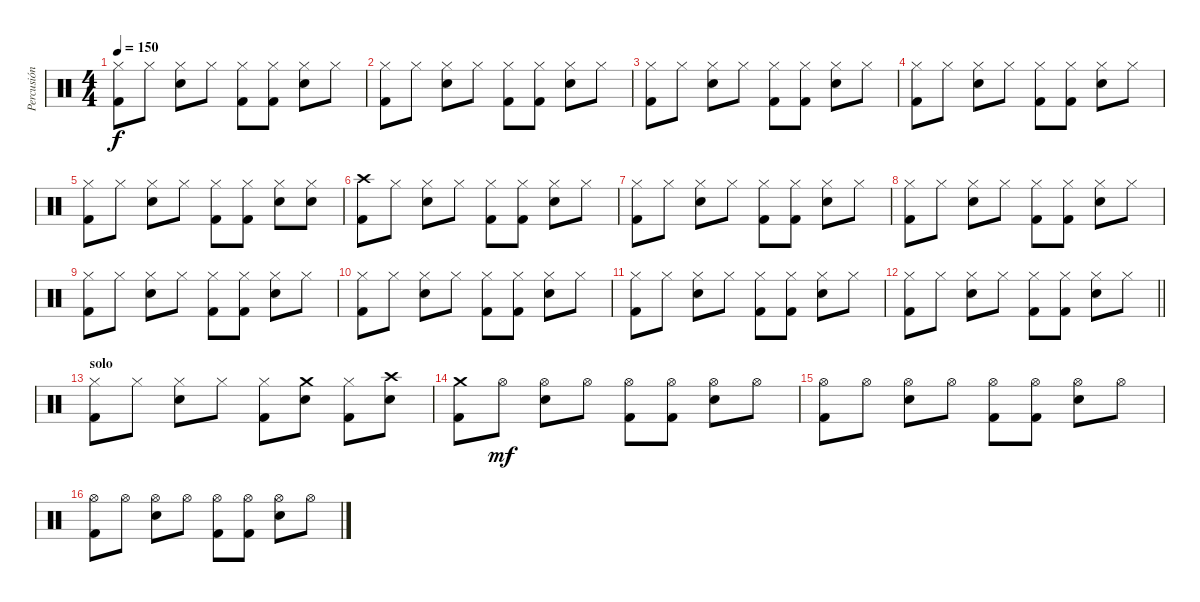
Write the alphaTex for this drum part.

\track ("Percusión" "Percusión") {instrument percussion}
\staff {score}
\articulation defaults
\ts (4 4)
\tempo 150
\clef neutral
\ks c
("Hi-Hat (closed)" "Kick (hit) 2").8{dy f} "Hi-Hat (closed)".8 ("Hi-Hat (closed)" "Electric Snare (hit)").8 "Hi-Hat (closed)".8 ("Hi-Hat (closed)" "Kick (hit) 2").8 ("Hi-Hat (closed)" "Kick (hit) 2").8 ("Hi-Hat (closed)" "Electric Snare (hit)").8 "Hi-Hat (closed)".8 |
("Hi-Hat (closed)" "Kick (hit) 2").8 "Hi-Hat (closed)".8 ("Hi-Hat (closed)" "Electric Snare (hit)").8 "Hi-Hat (closed)".8 ("Hi-Hat (closed)" "Kick (hit) 2").8 ("Hi-Hat (closed)" "Kick (hit) 2").8 ("Hi-Hat (closed)" "Electric Snare (hit)").8 "Hi-Hat (closed)".8 |
("Hi-Hat (closed)" "Kick (hit) 2").8 "Hi-Hat (closed)".8 ("Hi-Hat (closed)" "Electric Snare (hit)").8 "Hi-Hat (closed)".8 ("Hi-Hat (closed)" "Kick (hit) 2").8 ("Hi-Hat (closed)" "Kick (hit) 2").8 ("Hi-Hat (closed)" "Electric Snare (hit)").8 "Hi-Hat (closed)".8 |
("Hi-Hat (closed)" "Kick (hit) 2").8 "Hi-Hat (closed)".8 ("Hi-Hat (closed)" "Electric Snare (hit)").8 "Hi-Hat (closed)".8 ("Hi-Hat (closed)" "Kick (hit) 2").8 ("Hi-Hat (closed)" "Kick (hit) 2").8 ("Hi-Hat (closed)" "Electric Snare (hit)").8 "Hi-Hat (closed)".8 |
("Hi-Hat (closed)" "Kick (hit) 2").8 "Hi-Hat (closed)".8 ("Hi-Hat (closed)" "Electric Snare (hit)").8 "Hi-Hat (closed)".8 ("Hi-Hat (closed)" "Kick (hit) 2").8 ("Hi-Hat (closed)" "Kick (hit) 2").8 ("Hi-Hat (closed)" "Electric Snare (hit)").8 ("Hi-Hat (closed)" "Electric Snare (hit)").8 |
("Crash high (hit)" "Kick (hit) 2").8 "Hi-Hat (closed)".8 ("Hi-Hat (closed)" "Electric Snare (hit)").8 "Hi-Hat (closed)".8 ("Hi-Hat (closed)" "Kick (hit) 2").8 ("Hi-Hat (closed)" "Kick (hit) 2").8 ("Hi-Hat (closed)" "Electric Snare (hit)").8 "Hi-Hat (closed)".8 |
("Hi-Hat (closed)" "Kick (hit) 2").8 "Hi-Hat (closed)".8 ("Hi-Hat (closed)" "Electric Snare (hit)").8 "Hi-Hat (closed)".8 ("Hi-Hat (closed)" "Kick (hit) 2").8 ("Hi-Hat (closed)" "Kick (hit) 2").8 ("Hi-Hat (closed)" "Electric Snare (hit)").8 "Hi-Hat (closed)".8 |
("Hi-Hat (closed)" "Kick (hit) 2").8 "Hi-Hat (closed)".8 ("Hi-Hat (closed)" "Electric Snare (hit)").8 "Hi-Hat (closed)".8 ("Hi-Hat (closed)" "Kick (hit) 2").8 ("Hi-Hat (closed)" "Kick (hit) 2").8 ("Hi-Hat (closed)" "Electric Snare (hit)").8 "Hi-Hat (closed)".8 |
("Hi-Hat (closed)" "Kick (hit) 2").8 "Hi-Hat (closed)".8 ("Hi-Hat (closed)" "Electric Snare (hit)").8 "Hi-Hat (closed)".8 ("Hi-Hat (closed)" "Kick (hit) 2").8 ("Hi-Hat (closed)" "Kick (hit) 2").8 ("Hi-Hat (closed)" "Electric Snare (hit)").8 "Hi-Hat (closed)".8 |
("Hi-Hat (closed)" "Kick (hit) 2").8 "Hi-Hat (closed)".8 ("Hi-Hat (closed)" "Electric Snare (hit)").8 "Hi-Hat (closed)".8 ("Hi-Hat (closed)" "Kick (hit) 2").8 ("Hi-Hat (closed)" "Kick (hit) 2").8 ("Hi-Hat (closed)" "Electric Snare (hit)").8 "Hi-Hat (closed)".8 |
("Hi-Hat (closed)" "Kick (hit) 2").8 "Hi-Hat (closed)".8 ("Hi-Hat (closed)" "Electric Snare (hit)").8 "Hi-Hat (closed)".8 ("Hi-Hat (closed)" "Kick (hit) 2").8 ("Hi-Hat (closed)" "Kick (hit) 2").8 ("Hi-Hat (closed)" "Electric Snare (hit)").8 "Hi-Hat (closed)".8 |
\barLineRight lightlight
("Hi-Hat (closed)" "Kick (hit) 2").8 "Hi-Hat (closed)".8 ("Hi-Hat (closed)" "Electric Snare (hit)").8 "Hi-Hat (closed)".8 ("Hi-Hat (closed)" "Kick (hit) 2").8 ("Hi-Hat (closed)" "Kick (hit) 2").8 ("Hi-Hat (closed)" "Electric Snare (hit)").8 "Hi-Hat (closed)".8 |
\section ("" "solo")
("Hi-Hat (closed)" "Kick (hit) 2").8 "Hi-Hat (closed)".8 ("Hi-Hat (closed)" "Electric Snare (hit)").8 "Hi-Hat (closed)".8 ("Hi-Hat (closed)" "Kick (hit) 2").8 ("Crash medium (hit)" "Electric Snare (hit)").8 ("Hi-Hat (closed)" "Kick (hit) 2").8 ("Crash high (hit)" "Electric Snare (hit)").8 |
("Crash medium (hit)" "Kick (hit) 2").8 "Hi-Hat (open)".8{dy mf} ("Hi-Hat (open)" "Electric Snare (hit)").8 "Hi-Hat (open)".8 ("Hi-Hat (open)" "Kick (hit) 2").8 ("Hi-Hat (open)" "Kick (hit) 2").8 ("Hi-Hat (open)" "Electric Snare (hit)").8 "Hi-Hat (open)".8 |
("Hi-Hat (open)" "Kick (hit) 2").8 "Hi-Hat (open)".8 ("Hi-Hat (open)" "Electric Snare (hit)").8 "Hi-Hat (open)".8 ("Hi-Hat (open)" "Kick (hit) 2").8 ("Hi-Hat (open)" "Kick (hit) 2").8 ("Hi-Hat (open)" "Electric Snare (hit)").8 "Hi-Hat (open)".8 |
("Hi-Hat (open)" "Kick (hit) 2").8 "Hi-Hat (open)".8 ("Hi-Hat (open)" "Electric Snare (hit)").8 "Hi-Hat (open)".8 ("Hi-Hat (open)" "Kick (hit) 2").8 ("Hi-Hat (open)" "Kick (hit) 2").8 ("Hi-Hat (open)" "Electric Snare (hit)").8 "Hi-Hat (open)".8
